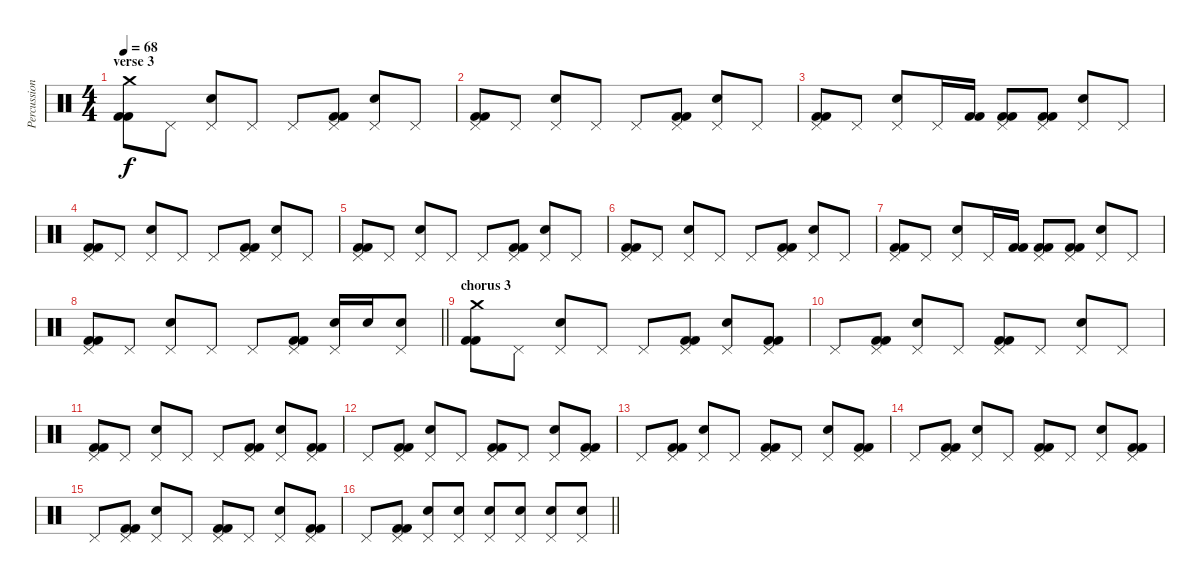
\track ("Percussion" "Percussion") {instrument percussion}
\staff {score}
\articulation defaults
\ts (4 4)
\section ("" "verse 3")
\tempo 68
\clef neutral
\ks c
("Kick (hit) 2" "Kick (hit) 2" "Crash medium (hit)").8{dy f} "Pedal Hi-Hat (hit)".8 ("Electric Snare (hit)" "Pedal Hi-Hat (hit)").8 "Pedal Hi-Hat (hit)".8 "Pedal Hi-Hat (hit)".8 ("Kick (hit) 2" "Kick (hit) 2" "Pedal Hi-Hat (hit)").8 ("Electric Snare (hit)" "Pedal Hi-Hat (hit)").8 "Pedal Hi-Hat (hit)".8 |
("Kick (hit) 2" "Kick (hit) 2" "Pedal Hi-Hat (hit)").8 "Pedal Hi-Hat (hit)".8 ("Electric Snare (hit)" "Pedal Hi-Hat (hit)").8 "Pedal Hi-Hat (hit)".8 "Pedal Hi-Hat (hit)".8 ("Kick (hit) 2" "Kick (hit) 2" "Pedal Hi-Hat (hit)").8 ("Electric Snare (hit)" "Pedal Hi-Hat (hit)").8 "Pedal Hi-Hat (hit)".8 |
("Kick (hit) 2" "Kick (hit) 2" "Pedal Hi-Hat (hit)").8 "Pedal Hi-Hat (hit)".8 ("Electric Snare (hit)" "Pedal Hi-Hat (hit)").8 "Pedal Hi-Hat (hit)".16 ("Kick (hit) 2" "Kick (hit) 2").16 ("Kick (hit) 2" "Kick (hit) 2" "Pedal Hi-Hat (hit)").8 ("Kick (hit) 2" "Kick (hit) 2" "Pedal Hi-Hat (hit)").8 ("Electric Snare (hit)" "Pedal Hi-Hat (hit)").8 "Pedal Hi-Hat (hit)".8 |
("Kick (hit) 2" "Kick (hit) 2" "Pedal Hi-Hat (hit)").8 "Pedal Hi-Hat (hit)".8 ("Electric Snare (hit)" "Pedal Hi-Hat (hit)").8 "Pedal Hi-Hat (hit)".8 "Pedal Hi-Hat (hit)".8 ("Kick (hit) 2" "Kick (hit) 2" "Pedal Hi-Hat (hit)").8 ("Electric Snare (hit)" "Pedal Hi-Hat (hit)").8 "Pedal Hi-Hat (hit)".8 |
("Kick (hit) 2" "Kick (hit) 2" "Pedal Hi-Hat (hit)").8 "Pedal Hi-Hat (hit)".8 ("Electric Snare (hit)" "Pedal Hi-Hat (hit)").8 "Pedal Hi-Hat (hit)".8 "Pedal Hi-Hat (hit)".8 ("Kick (hit) 2" "Kick (hit) 2" "Pedal Hi-Hat (hit)").8 ("Electric Snare (hit)" "Pedal Hi-Hat (hit)").8 "Pedal Hi-Hat (hit)".8 |
("Kick (hit) 2" "Kick (hit) 2" "Pedal Hi-Hat (hit)").8 "Pedal Hi-Hat (hit)".8 ("Electric Snare (hit)" "Pedal Hi-Hat (hit)").8 "Pedal Hi-Hat (hit)".8 "Pedal Hi-Hat (hit)".8 ("Kick (hit) 2" "Kick (hit) 2" "Pedal Hi-Hat (hit)").8 ("Electric Snare (hit)" "Pedal Hi-Hat (hit)").8 "Pedal Hi-Hat (hit)".8 |
("Kick (hit) 2" "Kick (hit) 2" "Pedal Hi-Hat (hit)").8 "Pedal Hi-Hat (hit)".8 ("Electric Snare (hit)" "Pedal Hi-Hat (hit)").8 "Pedal Hi-Hat (hit)".16 ("Kick (hit) 2" "Kick (hit) 2").16 ("Kick (hit) 2" "Kick (hit) 2" "Pedal Hi-Hat (hit)").8 ("Kick (hit) 2" "Kick (hit) 2" "Pedal Hi-Hat (hit)").8 ("Electric Snare (hit)" "Pedal Hi-Hat (hit)").8 "Pedal Hi-Hat (hit)".8 |
\barLineRight lightlight
("Kick (hit) 2" "Kick (hit) 2" "Pedal Hi-Hat (hit)").8 "Pedal Hi-Hat (hit)".8 ("Electric Snare (hit)" "Pedal Hi-Hat (hit)").8 "Pedal Hi-Hat (hit)".8 "Pedal Hi-Hat (hit)".8 ("Kick (hit) 2" "Kick (hit) 2" "Pedal Hi-Hat (hit)").8 ("Electric Snare (hit)" "Pedal Hi-Hat (hit)").16 "Electric Snare (hit)".16 ("Electric Snare (hit)" "Pedal Hi-Hat (hit)").8 |
\section ("" "chorus 3")
("Kick (hit) 2" "Kick (hit) 2" "Crash medium (hit)").8 "Pedal Hi-Hat (hit)".8 ("Electric Snare (hit)" "Pedal Hi-Hat (hit)").8 "Pedal Hi-Hat (hit)".8 "Pedal Hi-Hat (hit)".8 ("Kick (hit) 2" "Kick (hit) 2" "Pedal Hi-Hat (hit)").8 ("Electric Snare (hit)" "Pedal Hi-Hat (hit)").8 ("Kick (hit) 2" "Kick (hit) 2" "Pedal Hi-Hat (hit)").8 |
"Pedal Hi-Hat (hit)".8 ("Kick (hit) 2" "Kick (hit) 2" "Pedal Hi-Hat (hit)").8 ("Electric Snare (hit)" "Pedal Hi-Hat (hit)").8 "Pedal Hi-Hat (hit)".8 ("Kick (hit) 2" "Kick (hit) 2" "Pedal Hi-Hat (hit)").8 "Pedal Hi-Hat (hit)".8 ("Electric Snare (hit)" "Pedal Hi-Hat (hit)").8 "Pedal Hi-Hat (hit)".8 |
("Kick (hit) 2" "Kick (hit) 2" "Pedal Hi-Hat (hit)").8 "Pedal Hi-Hat (hit)".8 ("Electric Snare (hit)" "Pedal Hi-Hat (hit)").8 "Pedal Hi-Hat (hit)".8 "Pedal Hi-Hat (hit)".8 ("Kick (hit) 2" "Kick (hit) 2" "Pedal Hi-Hat (hit)").8 ("Electric Snare (hit)" "Pedal Hi-Hat (hit)").8 ("Kick (hit) 2" "Kick (hit) 2" "Pedal Hi-Hat (hit)").8 |
"Pedal Hi-Hat (hit)".8 ("Kick (hit) 2" "Kick (hit) 2" "Pedal Hi-Hat (hit)").8 ("Electric Snare (hit)" "Pedal Hi-Hat (hit)").8 "Pedal Hi-Hat (hit)".8 ("Kick (hit) 2" "Kick (hit) 2" "Pedal Hi-Hat (hit)").8 "Pedal Hi-Hat (hit)".8 ("Electric Snare (hit)" "Pedal Hi-Hat (hit)").8 ("Kick (hit) 2" "Kick (hit) 2" "Pedal Hi-Hat (hit)").8 |
"Pedal Hi-Hat (hit)".8 ("Kick (hit) 2" "Kick (hit) 2" "Pedal Hi-Hat (hit)").8 ("Electric Snare (hit)" "Pedal Hi-Hat (hit)").8 "Pedal Hi-Hat (hit)".8 ("Kick (hit) 2" "Kick (hit) 2" "Pedal Hi-Hat (hit)").8 "Pedal Hi-Hat (hit)".8 ("Electric Snare (hit)" "Pedal Hi-Hat (hit)").8 ("Kick (hit) 2" "Kick (hit) 2" "Pedal Hi-Hat (hit)").8 |
"Pedal Hi-Hat (hit)".8 ("Kick (hit) 2" "Kick (hit) 2" "Pedal Hi-Hat (hit)").8 ("Electric Snare (hit)" "Pedal Hi-Hat (hit)").8 "Pedal Hi-Hat (hit)".8 ("Kick (hit) 2" "Kick (hit) 2" "Pedal Hi-Hat (hit)").8 "Pedal Hi-Hat (hit)".8 ("Electric Snare (hit)" "Pedal Hi-Hat (hit)").8 ("Kick (hit) 2" "Kick (hit) 2" "Pedal Hi-Hat (hit)").8 |
"Pedal Hi-Hat (hit)".8 ("Kick (hit) 2" "Kick (hit) 2" "Pedal Hi-Hat (hit)").8 ("Electric Snare (hit)" "Pedal Hi-Hat (hit)").8 "Pedal Hi-Hat (hit)".8 ("Kick (hit) 2" "Kick (hit) 2" "Pedal Hi-Hat (hit)").8 "Pedal Hi-Hat (hit)".8 ("Electric Snare (hit)" "Pedal Hi-Hat (hit)").8 ("Kick (hit) 2" "Kick (hit) 2" "Pedal Hi-Hat (hit)").8 |
\barLineRight lightlight "Pedal Hi-Hat (hit)".8
("Kick (hit) 2" "Kick (hit) 2" "Pedal Hi-Hat (hit)").8 ("Electric Snare (hit)" "Pedal Hi-Hat (hit)").8 ("Electric Snare (hit)" "Pedal Hi-Hat (hit)").8 ("Electric Snare (hit)" "Pedal Hi-Hat (hit)").8 ("Electric Snare (hit)" "Pedal Hi-Hat (hit)").8 ("Electric Snare (hit)" "Pedal Hi-Hat (hit)").8 ("Electric Snare (hit)" "Pedal Hi-Hat (hit)").8
